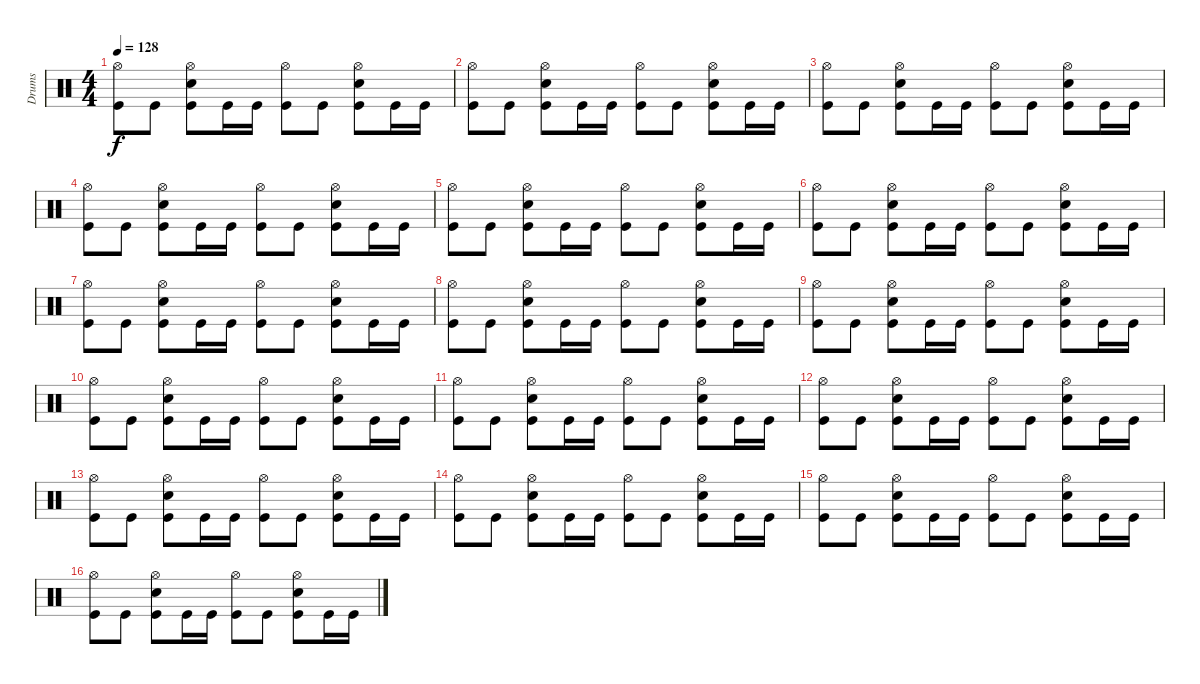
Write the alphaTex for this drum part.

\track ("Drums" "Drums") {instrument percussion}
\staff {score}
\articulation defaults
\ts (4 4)
\tempo 128
\clef neutral
\ks c
("Hi-Hat (open)" "Kick (hit)").8{dy f} "Kick (hit)".8 ("Hi-Hat (open)" "Snare (hit) 2" "Kick (hit)").8 "Kick (hit)".16 "Kick (hit)".16 ("Hi-Hat (open)" "Kick (hit)").8 "Kick (hit)".8 ("Hi-Hat (open)" "Snare (hit) 2" "Kick (hit)").8 "Kick (hit)".16 "Kick (hit)".16 |
("Hi-Hat (open)" "Kick (hit)").8 "Kick (hit)".8 ("Hi-Hat (open)" "Snare (hit) 2" "Kick (hit)").8 "Kick (hit)".16 "Kick (hit)".16 ("Hi-Hat (open)" "Kick (hit)").8 "Kick (hit)".8 ("Hi-Hat (open)" "Snare (hit) 2" "Kick (hit)").8 "Kick (hit)".16 "Kick (hit)".16 |
("Hi-Hat (open)" "Kick (hit)").8 "Kick (hit)".8 ("Hi-Hat (open)" "Snare (hit) 2" "Kick (hit)").8 "Kick (hit)".16 "Kick (hit)".16 ("Hi-Hat (open)" "Kick (hit)").8 "Kick (hit)".8 ("Hi-Hat (open)" "Snare (hit) 2" "Kick (hit)").8 "Kick (hit)".16 "Kick (hit)".16 |
("Hi-Hat (open)" "Kick (hit)").8 "Kick (hit)".8 ("Hi-Hat (open)" "Snare (hit) 2" "Kick (hit)").8 "Kick (hit)".16 "Kick (hit)".16 ("Hi-Hat (open)" "Kick (hit)").8 "Kick (hit)".8 ("Hi-Hat (open)" "Snare (hit) 2" "Kick (hit)").8 "Kick (hit)".16 "Kick (hit)".16 |
("Hi-Hat (open)" "Kick (hit)").8 "Kick (hit)".8 ("Hi-Hat (open)" "Snare (hit) 2" "Kick (hit)").8 "Kick (hit)".16 "Kick (hit)".16 ("Hi-Hat (open)" "Kick (hit)").8 "Kick (hit)".8 ("Hi-Hat (open)" "Snare (hit) 2" "Kick (hit)").8 "Kick (hit)".16 "Kick (hit)".16 |
("Hi-Hat (open)" "Kick (hit)").8 "Kick (hit)".8 ("Hi-Hat (open)" "Snare (hit) 2" "Kick (hit)").8 "Kick (hit)".16 "Kick (hit)".16 ("Hi-Hat (open)" "Kick (hit)").8 "Kick (hit)".8 ("Hi-Hat (open)" "Snare (hit) 2" "Kick (hit)").8 "Kick (hit)".16 "Kick (hit)".16 |
("Hi-Hat (open)" "Kick (hit)").8 "Kick (hit)".8 ("Hi-Hat (open)" "Snare (hit) 2" "Kick (hit)").8 "Kick (hit)".16 "Kick (hit)".16 ("Hi-Hat (open)" "Kick (hit)").8 "Kick (hit)".8 ("Hi-Hat (open)" "Snare (hit) 2" "Kick (hit)").8 "Kick (hit)".16 "Kick (hit)".16 |
("Hi-Hat (open)" "Kick (hit)").8 "Kick (hit)".8 ("Hi-Hat (open)" "Snare (hit) 2" "Kick (hit)").8 "Kick (hit)".16 "Kick (hit)".16 ("Hi-Hat (open)" "Kick (hit)").8 "Kick (hit)".8 ("Hi-Hat (open)" "Snare (hit) 2" "Kick (hit)").8 "Kick (hit)".16 "Kick (hit)".16 |
("Hi-Hat (open)" "Kick (hit)").8 "Kick (hit)".8 ("Hi-Hat (open)" "Snare (hit) 2" "Kick (hit)").8 "Kick (hit)".16 "Kick (hit)".16 ("Hi-Hat (open)" "Kick (hit)").8 "Kick (hit)".8 ("Hi-Hat (open)" "Snare (hit) 2" "Kick (hit)").8 "Kick (hit)".16 "Kick (hit)".16 |
("Hi-Hat (open)" "Kick (hit)").8 "Kick (hit)".8 ("Hi-Hat (open)" "Snare (hit) 2" "Kick (hit)").8 "Kick (hit)".16 "Kick (hit)".16 ("Hi-Hat (open)" "Kick (hit)").8 "Kick (hit)".8 ("Hi-Hat (open)" "Snare (hit) 2" "Kick (hit)").8 "Kick (hit)".16 "Kick (hit)".16 |
("Hi-Hat (open)" "Kick (hit)").8 "Kick (hit)".8 ("Hi-Hat (open)" "Snare (hit) 2" "Kick (hit)").8 "Kick (hit)".16 "Kick (hit)".16 ("Hi-Hat (open)" "Kick (hit)").8 "Kick (hit)".8 ("Hi-Hat (open)" "Snare (hit) 2" "Kick (hit)").8 "Kick (hit)".16 "Kick (hit)".16 |
("Hi-Hat (open)" "Kick (hit)").8 "Kick (hit)".8 ("Hi-Hat (open)" "Snare (hit) 2" "Kick (hit)").8 "Kick (hit)".16 "Kick (hit)".16 ("Hi-Hat (open)" "Kick (hit)").8 "Kick (hit)".8 ("Hi-Hat (open)" "Snare (hit) 2" "Kick (hit)").8 "Kick (hit)".16 "Kick (hit)".16 |
("Hi-Hat (open)" "Kick (hit)").8 "Kick (hit)".8 ("Hi-Hat (open)" "Snare (hit) 2" "Kick (hit)").8 "Kick (hit)".16 "Kick (hit)".16 ("Hi-Hat (open)" "Kick (hit)").8 "Kick (hit)".8 ("Hi-Hat (open)" "Snare (hit) 2" "Kick (hit)").8 "Kick (hit)".16 "Kick (hit)".16 |
("Hi-Hat (open)" "Kick (hit)").8 "Kick (hit)".8 ("Hi-Hat (open)" "Snare (hit) 2" "Kick (hit)").8 "Kick (hit)".16 "Kick (hit)".16 ("Hi-Hat (open)" "Kick (hit)").8 "Kick (hit)".8 ("Hi-Hat (open)" "Snare (hit) 2" "Kick (hit)").8 "Kick (hit)".16 "Kick (hit)".16 |
("Hi-Hat (open)" "Kick (hit)").8 "Kick (hit)".8 ("Hi-Hat (open)" "Snare (hit) 2" "Kick (hit)").8 "Kick (hit)".16 "Kick (hit)".16 ("Hi-Hat (open)" "Kick (hit)").8 "Kick (hit)".8 ("Hi-Hat (open)" "Snare (hit) 2" "Kick (hit)").8 "Kick (hit)".16 "Kick (hit)".16 |
("Hi-Hat (open)" "Kick (hit)").8 "Kick (hit)".8 ("Hi-Hat (open)" "Snare (hit) 2" "Kick (hit)").8 "Kick (hit)".16 "Kick (hit)".16 ("Hi-Hat (open)" "Kick (hit)").8 "Kick (hit)".8 ("Hi-Hat (open)" "Snare (hit) 2" "Kick (hit)").8 "Kick (hit)".16 "Kick (hit)".16
